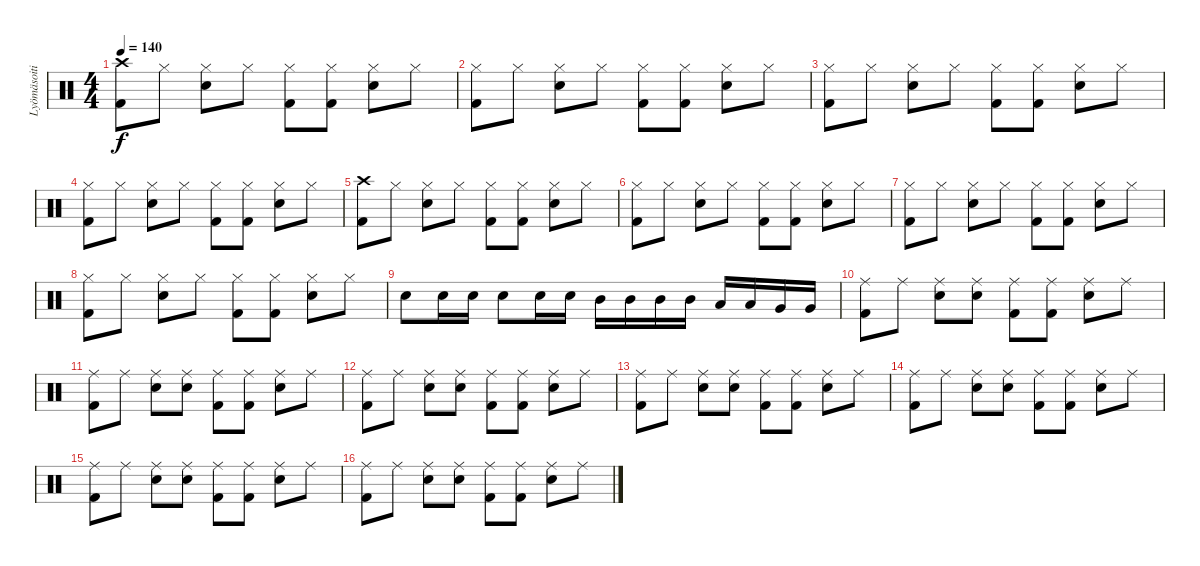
\track ("Lyömäsoitin" "Lyömäsoiti") {instrument percussion}
\staff {score}
\articulation defaults
\ts (4 4)
\tempo 140
\clef neutral
\ks c
("Crash high (hit)" "Kick (hit) 2").8{dy f} "Hi-Hat (closed)".8 ("Hi-Hat (closed)" "Electric Snare (hit)").8 "Hi-Hat (closed)".8 ("Hi-Hat (closed)" "Kick (hit) 2").8 ("Hi-Hat (closed)" "Kick (hit) 2").8 ("Hi-Hat (closed)" "Electric Snare (hit)").8 "Hi-Hat (closed)".8 |
("Hi-Hat (closed)" "Kick (hit) 2").8 "Hi-Hat (closed)".8 ("Hi-Hat (closed)" "Electric Snare (hit)").8 "Hi-Hat (closed)".8 ("Hi-Hat (closed)" "Kick (hit) 2").8 ("Hi-Hat (closed)" "Kick (hit) 2").8 ("Hi-Hat (closed)" "Electric Snare (hit)").8 "Hi-Hat (closed)".8 |
("Hi-Hat (closed)" "Kick (hit) 2").8 "Hi-Hat (closed)".8 ("Hi-Hat (closed)" "Electric Snare (hit)").8 "Hi-Hat (closed)".8 ("Hi-Hat (closed)" "Kick (hit) 2").8 ("Hi-Hat (closed)" "Kick (hit) 2").8 ("Hi-Hat (closed)" "Electric Snare (hit)").8 "Hi-Hat (closed)".8 |
("Hi-Hat (closed)" "Kick (hit) 2").8 "Hi-Hat (closed)".8 ("Hi-Hat (closed)" "Electric Snare (hit)").8 "Hi-Hat (closed)".8 ("Hi-Hat (closed)" "Kick (hit) 2").8 ("Hi-Hat (closed)" "Kick (hit) 2").8 ("Hi-Hat (closed)" "Electric Snare (hit)").8 "Hi-Hat (closed)".8 |
("Crash high (hit)" "Kick (hit) 2").8 "Hi-Hat (closed)".8 ("Hi-Hat (closed)" "Electric Snare (hit)").8 "Hi-Hat (closed)".8 ("Hi-Hat (closed)" "Kick (hit) 2").8 ("Hi-Hat (closed)" "Kick (hit) 2").8 ("Hi-Hat (closed)" "Electric Snare (hit)").8 "Hi-Hat (closed)".8 |
("Hi-Hat (closed)" "Kick (hit) 2").8 "Hi-Hat (closed)".8 ("Hi-Hat (closed)" "Electric Snare (hit)").8 "Hi-Hat (closed)".8 ("Hi-Hat (closed)" "Kick (hit) 2").8 ("Hi-Hat (closed)" "Kick (hit) 2").8 ("Hi-Hat (closed)" "Electric Snare (hit)").8 "Hi-Hat (closed)".8 |
("Hi-Hat (closed)" "Kick (hit) 2").8 "Hi-Hat (closed)".8 ("Hi-Hat (closed)" "Electric Snare (hit)").8 "Hi-Hat (closed)".8 ("Hi-Hat (closed)" "Kick (hit) 2").8 ("Hi-Hat (closed)" "Kick (hit) 2").8 ("Hi-Hat (closed)" "Electric Snare (hit)").8 "Hi-Hat (closed)".8 |
("Hi-Hat (closed)" "Kick (hit) 2").8 "Hi-Hat (closed)".8 ("Hi-Hat (closed)" "Electric Snare (hit)").8 "Hi-Hat (closed)".8 ("Hi-Hat (closed)" "Kick (hit) 2").8 ("Hi-Hat (closed)" "Kick (hit) 2").8 ("Hi-Hat (closed)" "Electric Snare (hit)").8 "Hi-Hat (closed)".8 |
"Electric Snare (hit)".8 "Electric Snare (hit)".16 "Electric Snare (hit)".16 "Electric Snare (hit)".8 "Electric Snare (hit)".16 "Electric Snare (hit)".16 "Mid Tom (hit)".16 "Mid Tom (hit)".16 "Mid Tom (hit)".16 "Mid Tom (hit)".16 "Low Tom (hit)".16 "Low Tom (hit)".16 "Very Low Tom (hit)".16 "Very Low Tom (hit)".16 |
("Ride (middle)" "Kick (hit) 2").8 "Ride (middle)".8 ("Ride (middle)" "Electric Snare (hit)").8 ("Ride (middle)" "Electric Snare (hit)").8 ("Ride (middle)" "Kick (hit) 2").8 ("Ride (middle)" "Kick (hit) 2").8 ("Ride (middle)" "Electric Snare (hit)").8 "Ride (middle)".8 |
("Ride (middle)" "Kick (hit) 2").8 "Ride (middle)".8 ("Ride (middle)" "Electric Snare (hit)").8 ("Ride (middle)" "Electric Snare (hit)").8 ("Ride (middle)" "Kick (hit) 2").8 ("Ride (middle)" "Kick (hit) 2").8 ("Ride (middle)" "Electric Snare (hit)").8 "Ride (middle)".8 |
("Ride (middle)" "Kick (hit) 2").8 "Ride (middle)".8 ("Ride (middle)" "Electric Snare (hit)").8 ("Ride (middle)" "Electric Snare (hit)").8 ("Ride (middle)" "Kick (hit) 2").8 ("Ride (middle)" "Kick (hit) 2").8 ("Ride (middle)" "Electric Snare (hit)").8 "Ride (middle)".8 |
("Ride (middle)" "Kick (hit) 2").8 "Ride (middle)".8 ("Ride (middle)" "Electric Snare (hit)").8 ("Ride (middle)" "Electric Snare (hit)").8 ("Ride (middle)" "Kick (hit) 2").8 ("Ride (middle)" "Kick (hit) 2").8 ("Ride (middle)" "Electric Snare (hit)").8 "Ride (middle)".8 |
("Ride (middle)" "Kick (hit) 2").8 "Ride (middle)".8 ("Ride (middle)" "Electric Snare (hit)").8 ("Ride (middle)" "Electric Snare (hit)").8 ("Ride (middle)" "Kick (hit) 2").8 ("Ride (middle)" "Kick (hit) 2").8 ("Ride (middle)" "Electric Snare (hit)").8 "Ride (middle)".8 |
("Ride (middle)" "Kick (hit) 2").8 "Ride (middle)".8 ("Ride (middle)" "Electric Snare (hit)").8 ("Ride (middle)" "Electric Snare (hit)").8 ("Ride (middle)" "Kick (hit) 2").8 ("Ride (middle)" "Kick (hit) 2").8 ("Ride (middle)" "Electric Snare (hit)").8 "Ride (middle)".8 |
("Ride (middle)" "Kick (hit) 2").8 "Ride (middle)".8 ("Ride (middle)" "Electric Snare (hit)").8 ("Ride (middle)" "Electric Snare (hit)").8 ("Ride (middle)" "Kick (hit) 2").8 ("Ride (middle)" "Kick (hit) 2").8 ("Ride (middle)" "Electric Snare (hit)").8 "Ride (middle)".8
